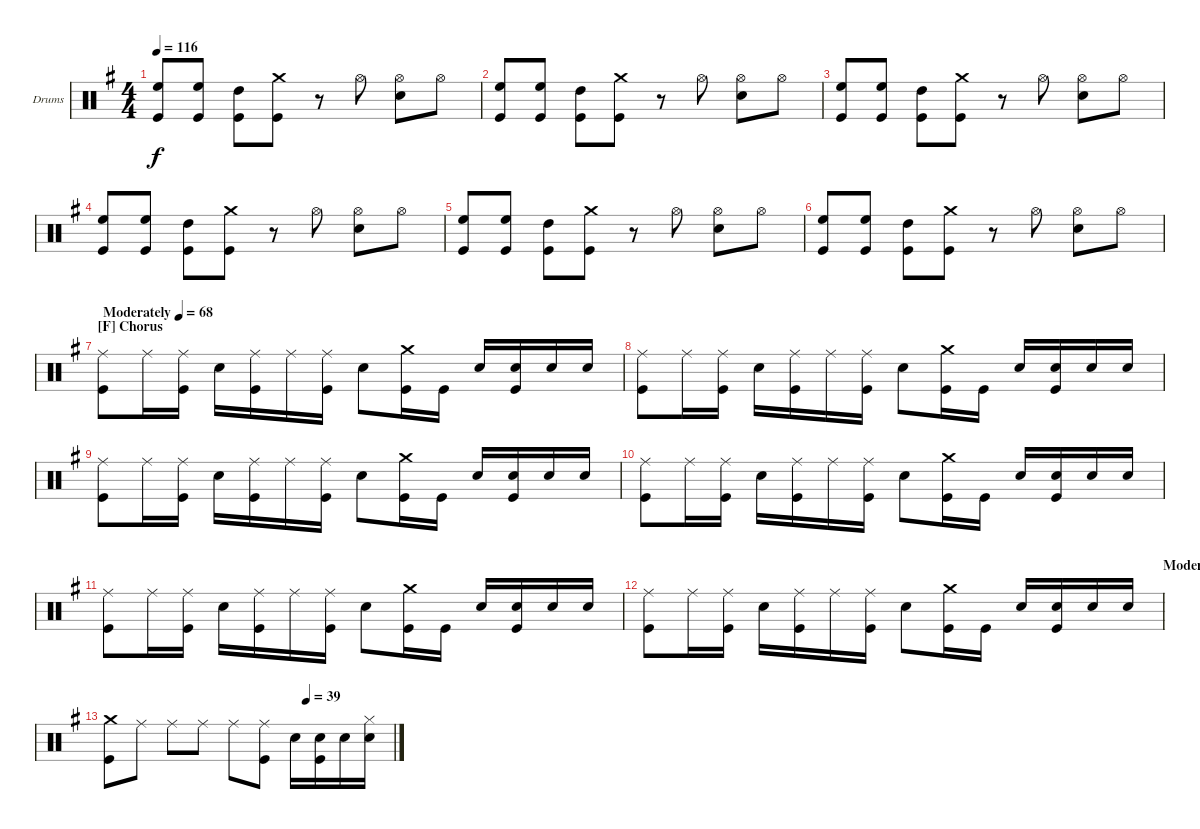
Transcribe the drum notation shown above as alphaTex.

\defaultSystemsLayout 4
\bracketExtendMode groupsimilarinstruments
\firstSystemTrackNameOrientation horizontal
\otherSystemsTrackNameOrientation horizontal
\track ("Drumkit" "Drums") {instrument percussion}
\staff {score}
\articulation defaults
\ts (4 4)
\tempo 116
\clef neutral
\scale
1.02648
\ks g
("High Floor Tom (hit)" "Kick (hit)").8{dy f} ("High Floor Tom (hit)" "Kick (hit)").8 ("High Tom (hit)" "Kick (hit)").8 ("Crash medium (hit)" "Kick (hit)").8 r.8 "Hi-Hat (open)".8 ("Hi-Hat (open)" "Snare (hit) 2").8 "Hi-Hat (open)".8 |
\scale
0.973518 ("High Floor Tom (hit)" "Kick (hit)").8 ("High Floor Tom (hit)" "Kick (hit)").8 ("High Tom (hit)" "Kick (hit)").8 ("Crash medium (hit)" "Kick (hit)").8 r.8 "Hi-Hat (open)".8 ("Hi-Hat (open)" "Snare (hit) 2").8 "Hi-Hat (open)".8 |
\scale
1.02648 ("High Floor Tom (hit)" "Kick (hit)").8 ("High Floor Tom (hit)" "Kick (hit)").8 ("High Tom (hit)" "Kick (hit)").8 ("Crash medium (hit)" "Kick (hit)").8 r.8 "Hi-Hat (open)".8 ("Hi-Hat (open)" "Snare (hit) 2").8 "Hi-Hat (open)".8 |
\scale
0.973518 ("High Floor Tom (hit)" "Kick (hit)").8 ("High Floor Tom (hit)" "Kick (hit)").8 ("High Tom (hit)" "Kick (hit)").8 ("Crash medium (hit)" "Kick (hit)").8 r.8 "Hi-Hat (open)".8 ("Hi-Hat (open)" "Snare (hit) 2").8 "Hi-Hat (open)".8 |
\scale
1.02648 ("High Floor Tom (hit)" "Kick (hit)").8 ("High Floor Tom (hit)" "Kick (hit)").8 ("High Tom (hit)" "Kick (hit)").8 ("Crash medium (hit)" "Kick (hit)").8 r.8 "Hi-Hat (open)".8 ("Hi-Hat (open)" "Snare (hit) 2").8 "Hi-Hat (open)".8 |
\scale
0.973518 ("High Floor Tom (hit)" "Kick (hit)").8 ("High Floor Tom (hit)" "Kick (hit)").8 ("High Tom (hit)" "Kick (hit)").8 ("Crash medium (hit)" "Kick (hit)").8 r.8 "Hi-Hat (open)".8 ("Hi-Hat (open)" "Snare (hit) 2").8 "Hi-Hat (open)".8 |
\section ("F" "Chorus")
\tempo (68 "Moderately")
\scale
1.02648 ("Ride (middle)" "Kick (hit)").8 "Ride (middle)".16 ("Ride (middle)" "Kick (hit)").16 "Snare (hit) 2".16 ("Ride (middle)" "Kick (hit)").16 "Ride (middle)".16 ("Ride (middle)" "Kick (hit)").16 "Snare (hit) 2".8 ("Crash medium (hit)" "Kick (hit)").16 "Kick (hit)".16 "Snare (hit) 2".16 ("Snare (hit) 2" "Kick (hit)").16 "Snare (hit) 2".16 "Snare (hit) 2".16 |
\scale
0.973518 ("Ride (middle)" "Kick (hit)").8 "Ride (middle)".16 ("Ride (middle)" "Kick (hit)").16 "Snare (hit) 2".16 ("Ride (middle)" "Kick (hit)").16 "Ride (middle)".16 ("Ride (middle)" "Kick (hit)").16 "Snare (hit) 2".8 ("Crash medium (hit)" "Kick (hit)").16 "Kick (hit)".16 "Snare (hit) 2".16 ("Snare (hit) 2" "Kick (hit)").16 "Snare (hit) 2".16 "Snare (hit) 2".16 |
\scale
1.02648 ("Ride (middle)" "Kick (hit)").8 "Ride (middle)".16 ("Ride (middle)" "Kick (hit)").16 "Snare (hit) 2".16 ("Ride (middle)" "Kick (hit)").16 "Ride (middle)".16 ("Ride (middle)" "Kick (hit)").16 "Snare (hit) 2".8 ("Crash medium (hit)" "Kick (hit)").16 "Kick (hit)".16 "Snare (hit) 2".16 ("Snare (hit) 2" "Kick (hit)").16 "Snare (hit) 2".16 "Snare (hit) 2".16 |
\scale
0.973518 ("Ride (middle)" "Kick (hit)").8 "Ride (middle)".16 ("Ride (middle)" "Kick (hit)").16 "Snare (hit) 2".16 ("Ride (middle)" "Kick (hit)").16 "Ride (middle)".16 ("Ride (middle)" "Kick (hit)").16 "Snare (hit) 2".8 ("Crash medium (hit)" "Kick (hit)").16 "Kick (hit)".16 "Snare (hit) 2".16 ("Snare (hit) 2" "Kick (hit)").16 "Snare (hit) 2".16 "Snare (hit) 2".16 |
\scale
1.02648 ("Ride (middle)" "Kick (hit)").8 "Ride (middle)".16 ("Ride (middle)" "Kick (hit)").16 "Snare (hit) 2".16 ("Ride (middle)" "Kick (hit)").16 "Ride (middle)".16 ("Ride (middle)" "Kick (hit)").16 "Snare (hit) 2".8 ("Crash medium (hit)" "Kick (hit)").16 "Kick (hit)".16 "Snare (hit) 2".16 ("Snare (hit) 2" "Kick (hit)").16 "Snare (hit) 2".16 "Snare (hit) 2".16 |
\tempo (68 "Moderately" 1)
\scale
0.973518 ("Ride (middle)" "Kick (hit)").8 "Ride (middle)".16 ("Ride (middle)" "Kick (hit)").16 "Snare (hit) 2".16 ("Ride (middle)" "Kick (hit)").16 "Ride (middle)".16 ("Ride (middle)" "Kick (hit)").16 "Snare (hit) 2".8 ("Crash medium (hit)" "Kick (hit)").16 "Kick (hit)".16 "Snare (hit) 2".16 ("Snare (hit) 2" "Kick (hit)").16 "Snare (hit) 2".16 "Snare (hit) 2".16 |
\tempo (39 0.69375)
\scale
1.02648 ("Crash medium (hit)" "Kick (hit)").8 "Ride (middle)".8 "Ride (middle)".8 "Ride (middle)".8 "Ride (middle)".8 ("Ride (middle)" "Kick (hit)").8 "Snare (hit) 2".16 ("Snare (hit) 2" "Kick (hit)").16 "Snare (hit) 2".16 ("Snare (hit) 2" "Hi-Hat (closed)").16 |
\scale
0.973518
